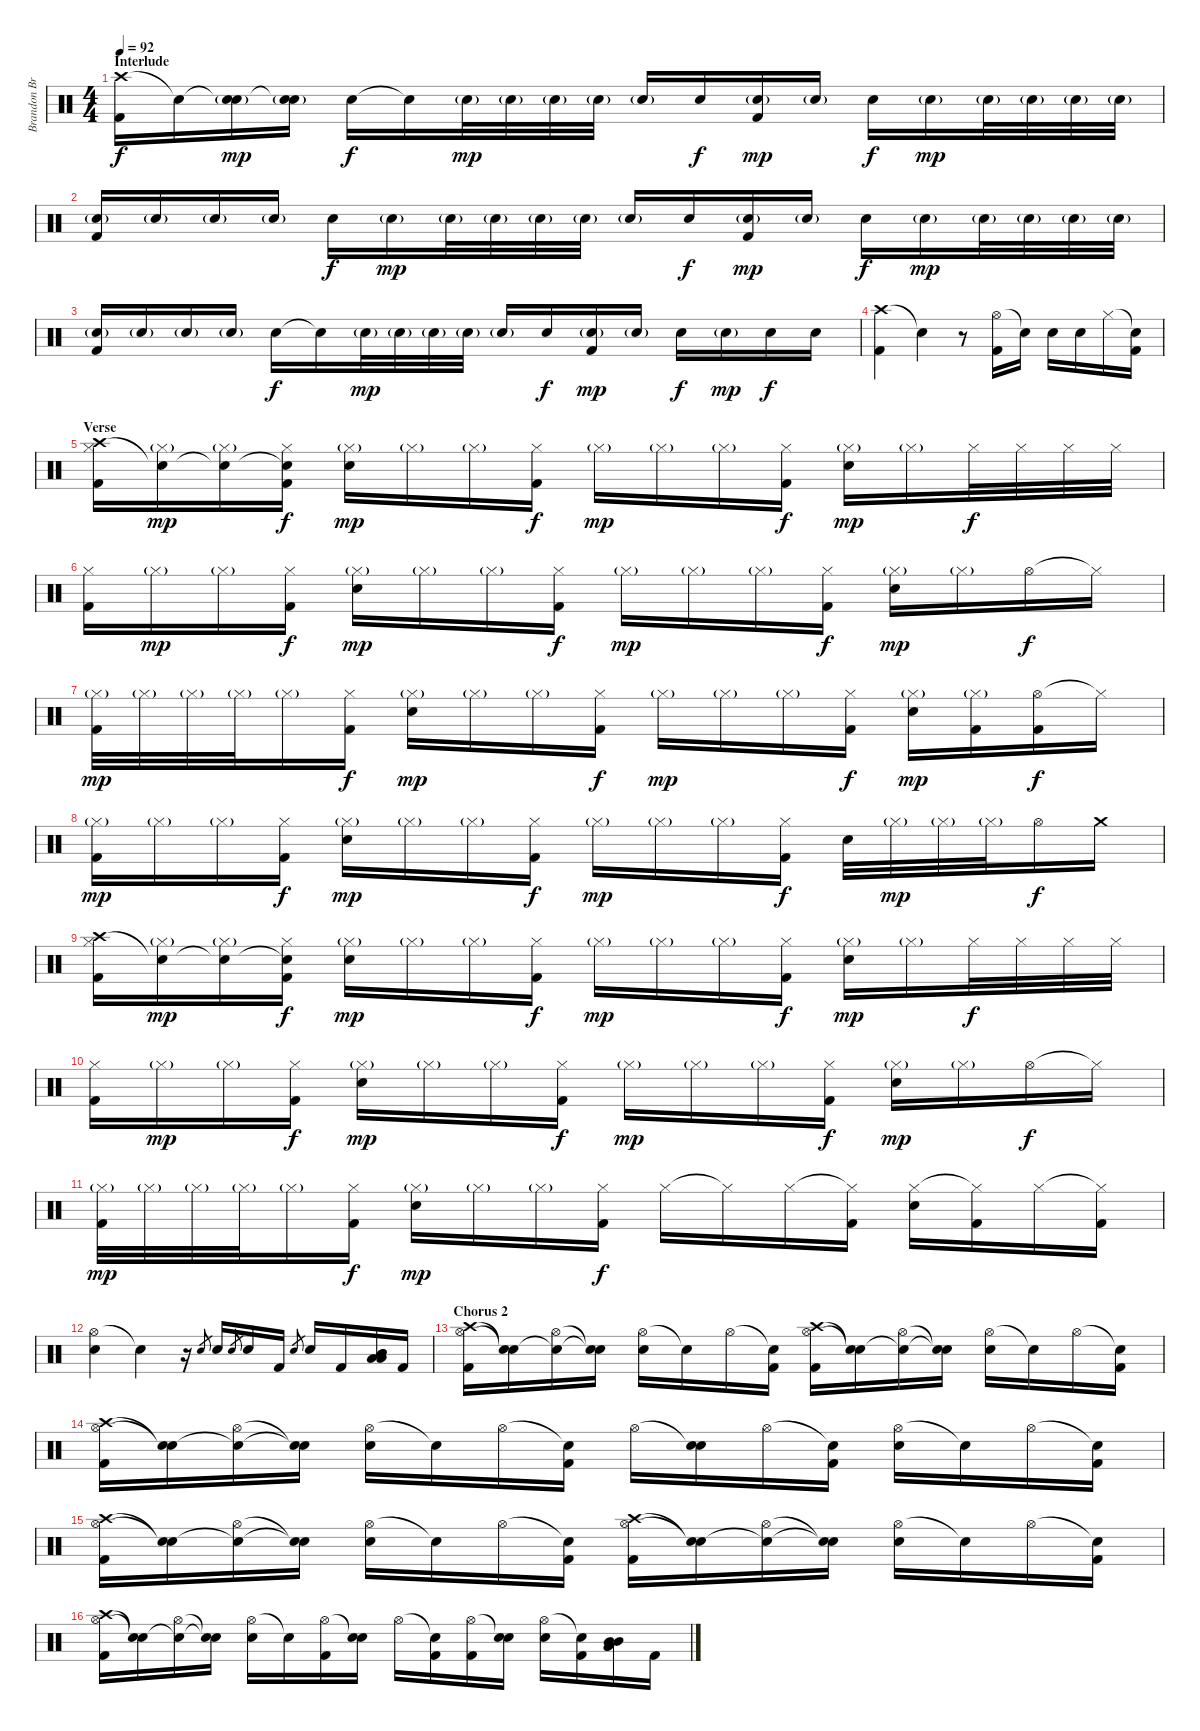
\track ("Brandon Brown (Drums)" "Brandon Br") {instrument percussion}
\staff {score}
\articulation defaults
\ts (4 4)
\section ("" "Interlude")
\tempo 92
\clef neutral
\ks c
("Crash high (hit)" "Kick (hit) 2").16{dy f} "Snare (hit)"{t}.16 ("Snare (hit)"{t} "Electric Snare (hit)"{g}).16{dy mp} ("Snare (hit)"{t} "Electric Snare (hit)"{g}).16 "Electric Snare (hit)".16{dy f} "Snare (hit)"{t}.16 "Electric Snare (hit)"{g}.32{dy mp} "Electric Snare (hit)"{g}.32 "Electric Snare (hit)"{g}.32 "Electric Snare (hit)"{g}.32 "Electric Snare (hit)"{g}.16 "Electric Snare (hit)".16{dy f} ("Electric Snare (hit)"{g} "Kick (hit) 2").16{dy mp} "Electric Snare (hit)"{g}.16 "Electric Snare (hit)".16{dy f} "Electric Snare (hit)"{g}.16{dy mp} "Electric Snare (hit)"{g}.32 "Electric Snare (hit)"{g}.32 "Electric Snare (hit)"{g}.32 "Electric Snare (hit)"{g}.32 |
("Electric Snare (hit)"{g} "Kick (hit) 2").16 "Electric Snare (hit)"{g}.16 "Electric Snare (hit)"{g}.16 "Electric Snare (hit)"{g}.16 "Electric Snare (hit)".16{dy f} "Electric Snare (hit)"{g}.16{dy mp} "Electric Snare (hit)"{g}.32 "Electric Snare (hit)"{g}.32 "Electric Snare (hit)"{g}.32 "Electric Snare (hit)"{g}.32 "Electric Snare (hit)"{g}.16 "Electric Snare (hit)".16{dy f} ("Electric Snare (hit)"{g} "Kick (hit) 2").16{dy mp} "Electric Snare (hit)"{g}.16 "Electric Snare (hit)".16{dy f} "Electric Snare (hit)"{g}.16{dy mp} "Electric Snare (hit)"{g}.32 "Electric Snare (hit)"{g}.32 "Electric Snare (hit)"{g}.32 "Electric Snare (hit)"{g}.32 |
("Electric Snare (hit)"{g} "Kick (hit) 2").16 "Electric Snare (hit)"{g}.16 "Electric Snare (hit)"{g}.16 "Electric Snare (hit)"{g}.16 "Electric Snare (hit)".16{dy f} "Snare (hit)"{t}.16 "Electric Snare (hit)"{g}.32{dy mp} "Electric Snare (hit)"{g}.32 "Electric Snare (hit)"{g}.32 "Electric Snare (hit)"{g}.32 "Electric Snare (hit)"{g}.16 "Electric Snare (hit)".16{dy f} ("Electric Snare (hit)"{g} "Kick (hit) 2").16{dy mp} "Electric Snare (hit)"{g}.16 "Electric Snare (hit)".16{dy f} "Electric Snare (hit)"{g}.16{dy mp} "Electric Snare (hit)".16{dy f} "Electric Snare (hit)".16 |
("Crash high (hit)" "Kick (hit) 2").4 "Snare (hit)"{t}.4 r.8 ("Hi-Hat (open)" "Kick (hit) 2").16 "Snare (hit)"{t}.16 "Electric Snare (hit)".16 "Electric Snare (hit)".16 "Hi-Hat (closed)".16 ("Snare (hit)"{t} "Kick (hit) 2").16 |
\section ("" "Verse")
("Hi-Hat (closed)" "Crash high (hit)" "Kick (hit) 2").16 ("Hi-Hat (closed)"{g} "Snare (hit)"{t}).16{dy mp} ("Hi-Hat (closed)"{g} "Snare (hit)"{t}).16 ("Hi-Hat (closed)" "Snare (hit)"{t} "Kick (hit) 2").16{dy f} ("Hi-Hat (closed)"{g} "Electric Snare (hit)").16{dy mp} "Hi-Hat (closed)"{g}.16 "Hi-Hat (closed)"{g}.16 ("Hi-Hat (closed)" "Kick (hit) 2").16{dy f} "Hi-Hat (closed)"{g}.16{dy mp} "Hi-Hat (closed)"{g}.16 "Hi-Hat (closed)"{g}.16 ("Hi-Hat (closed)" "Kick (hit) 2").16{dy f} ("Hi-Hat (closed)"{g} "Electric Snare (hit)").16{dy mp} "Hi-Hat (closed)"{g}.16 "Hi-Hat (closed)".32{dy f} "Hi-Hat (closed)".32 "Hi-Hat (closed)".32 "Hi-Hat (closed)".32 |
("Hi-Hat (closed)" "Kick (hit) 2").16 "Hi-Hat (closed)"{g}.16{dy mp} "Hi-Hat (closed)"{g}.16 ("Hi-Hat (closed)" "Kick (hit) 2").16{dy f} ("Hi-Hat (closed)"{g} "Electric Snare (hit)").16{dy mp} "Hi-Hat (closed)"{g}.16 "Hi-Hat (closed)"{g}.16 ("Hi-Hat (closed)" "Kick (hit) 2").16{dy f} "Hi-Hat (closed)"{g}.16{dy mp} "Hi-Hat (closed)"{g}.16 "Hi-Hat (closed)"{g}.16 ("Hi-Hat (closed)" "Kick (hit) 2").16{dy f} ("Hi-Hat (closed)"{g} "Electric Snare (hit)").16{dy mp} "Hi-Hat (closed)"{g}.16 "Hi-Hat (open)".16{dy f} "Hi-Hat (closed)"{t}.16 |
("Hi-Hat (closed)"{g} "Kick (hit) 2").32{dy mp} "Hi-Hat (closed)"{g}.32 "Hi-Hat (closed)"{g}.32 "Hi-Hat (closed)"{g}.32 "Hi-Hat (closed)"{g}.16 ("Hi-Hat (closed)" "Kick (hit) 2").16{dy f} ("Hi-Hat (closed)"{g} "Electric Snare (hit)").16{dy mp} "Hi-Hat (closed)"{g}.16 "Hi-Hat (closed)"{g}.16 ("Hi-Hat (closed)" "Kick (hit) 2").16{dy f} "Hi-Hat (closed)"{g}.16{dy mp} "Hi-Hat (closed)"{g}.16 "Hi-Hat (closed)"{g}.16 ("Hi-Hat (closed)" "Kick (hit) 2").16{dy f} ("Hi-Hat (closed)"{g} "Electric Snare (hit)").16{dy mp} ("Hi-Hat (closed)"{g} "Kick (hit) 2").16 ("Hi-Hat (open)" "Kick (hit) 2").16{dy f} "Hi-Hat (closed)"{t}.16 |
("Hi-Hat (closed)"{g} "Kick (hit) 2").16{dy mp} "Hi-Hat (closed)"{g}.16 "Hi-Hat (closed)"{g}.16 ("Hi-Hat (closed)" "Kick (hit) 2").16{dy f} ("Hi-Hat (closed)"{g} "Electric Snare (hit)").16{dy mp} "Hi-Hat (closed)"{g}.16 "Hi-Hat (closed)"{g}.16 ("Hi-Hat (closed)" "Kick (hit) 2").16{dy f} "Hi-Hat (closed)"{g}.16{dy mp} "Hi-Hat (closed)"{g}.16 "Hi-Hat (closed)"{g}.16 ("Hi-Hat (closed)" "Kick (hit) 2").16{dy f} "Electric Snare (hit)".32 "Hi-Hat (closed)"{g}.32{dy mp} "Hi-Hat (closed)"{g}.32 "Hi-Hat (closed)"{g}.32 "Hi-Hat (open)".16{dy f} "Crash medium (hit)".16 |
("Hi-Hat (closed)" "Crash high (hit)" "Kick (hit) 2").16 ("Hi-Hat (closed)"{g} "Snare (hit)"{t}).16{dy mp} ("Hi-Hat (closed)"{g} "Snare (hit)"{t}).16 ("Hi-Hat (closed)" "Snare (hit)"{t} "Kick (hit) 2").16{dy f} ("Hi-Hat (closed)"{g} "Electric Snare (hit)").16{dy mp} "Hi-Hat (closed)"{g}.16 "Hi-Hat (closed)"{g}.16 ("Hi-Hat (closed)" "Kick (hit) 2").16{dy f} "Hi-Hat (closed)"{g}.16{dy mp} "Hi-Hat (closed)"{g}.16 "Hi-Hat (closed)"{g}.16 ("Hi-Hat (closed)" "Kick (hit) 2").16{dy f} ("Hi-Hat (closed)"{g} "Electric Snare (hit)").16{dy mp} "Hi-Hat (closed)"{g}.16 "Hi-Hat (closed)".32{dy f} "Hi-Hat (closed)".32 "Hi-Hat (closed)".32 "Hi-Hat (closed)".32 |
("Hi-Hat (closed)" "Kick (hit) 2").16 "Hi-Hat (closed)"{g}.16{dy mp} "Hi-Hat (closed)"{g}.16 ("Hi-Hat (closed)" "Kick (hit) 2").16{dy f} ("Hi-Hat (closed)"{g} "Electric Snare (hit)").16{dy mp} "Hi-Hat (closed)"{g}.16 "Hi-Hat (closed)"{g}.16 ("Hi-Hat (closed)" "Kick (hit) 2").16{dy f} "Hi-Hat (closed)"{g}.16{dy mp} "Hi-Hat (closed)"{g}.16 "Hi-Hat (closed)"{g}.16 ("Hi-Hat (closed)" "Kick (hit) 2").16{dy f} ("Hi-Hat (closed)"{g} "Electric Snare (hit)").16{dy mp} "Hi-Hat (closed)"{g}.16 "Hi-Hat (open)".16{dy f} "Hi-Hat (closed)"{t}.16 |
("Hi-Hat (closed)"{g} "Kick (hit) 2").32{dy mp} "Hi-Hat (closed)"{g}.32 "Hi-Hat (closed)"{g}.32 "Hi-Hat (closed)"{g}.32 "Hi-Hat (closed)"{g}.16 ("Hi-Hat (closed)" "Kick (hit) 2").16{dy f} ("Hi-Hat (closed)"{g} "Electric Snare (hit)").16{dy mp} "Hi-Hat (closed)"{g}.16 "Hi-Hat (closed)"{g}.16 ("Hi-Hat (closed)" "Kick (hit) 2").16{dy f} "Hi-Hat (closed)".16 "Hi-Hat (closed)"{t}.16 "Hi-Hat (closed)".16 ("Hi-Hat (closed)"{t} "Kick (hit) 2").16 ("Hi-Hat (closed)" "Electric Snare (hit)").16 ("Hi-Hat (closed)"{t} "Kick (hit) 2").16 "Hi-Hat (closed)".16 ("Hi-Hat (closed)"{t} "Kick (hit) 2").16 |
("Hi-Hat (open)" "Electric Snare (hit)").4 "Snare (hit)"{t}.4 r.16 "Electric Snare (hit)".8{gr} "Electric Snare (hit)".16 "Electric Snare (hit)".8{gr} "Electric Snare (hit)".16 "Kick (hit) 2".16 "Electric Snare (hit)".8{gr} "Electric Snare (hit)".16 "Kick (hit) 2".16 ("Mid Tom (hit)" "Mid Tom (hit)" "Low Tom (hit)" "Low Tom (hit)").16 "Kick (hit) 2".16 |
\section ("" "Chorus 2")
("Hi-Hat (open)" "Crash high (hit)" "Kick (hit) 2").16 ("Snare (hit)"{t} "Snare (hit)"{t}).16 ("Hi-Hat (open)" "Snare (hit)"{t}).16 ("Snare (hit)"{t} "Snare (hit)"{t}).16 ("Hi-Hat (open)" "Electric Snare (hit)").16 "Snare (hit)"{t}.16 "Hi-Hat (open)".16 ("Snare (hit)"{t} "Kick (hit) 2").16 ("Hi-Hat (open)" "Crash high (hit)" "Kick (hit) 2").16 ("Snare (hit)"{t} "Snare (hit)"{t}).16 ("Hi-Hat (open)" "Snare (hit)"{t}).16 ("Snare (hit)"{t} "Snare (hit)"{t}).16 ("Hi-Hat (open)" "Electric Snare (hit)").16 "Snare (hit)"{t}.16 "Hi-Hat (open)".16 ("Snare (hit)"{t} "Kick (hit) 2").16 |
("Hi-Hat (open)" "Crash high (hit)" "Kick (hit) 2").16 ("Snare (hit)"{t} "Snare (hit)"{t}).16 ("Hi-Hat (open)" "Snare (hit)"{t}).16 ("Snare (hit)"{t} "Snare (hit)"{t}).16 ("Hi-Hat (open)" "Electric Snare (hit)").16 "Snare (hit)"{t}.16 "Hi-Hat (open)".16 ("Snare (hit)"{t} "Kick (hit) 2").16 "Hi-Hat (open)".16 ("Snare (hit)"{t} "Electric Snare (hit)").16 "Hi-Hat (open)".16 ("Snare (hit)"{t} "Kick (hit) 2").16 ("Hi-Hat (open)" "Electric Snare (hit)").16 "Snare (hit)"{t}.16 "Hi-Hat (open)".16 ("Snare (hit)"{t} "Kick (hit) 2").16 |
("Hi-Hat (open)" "Crash high (hit)" "Kick (hit) 2").16 ("Snare (hit)"{t} "Snare (hit)"{t}).16 ("Hi-Hat (open)" "Snare (hit)"{t}).16 ("Snare (hit)"{t} "Snare (hit)"{t}).16 ("Hi-Hat (open)" "Electric Snare (hit)").16 "Snare (hit)"{t}.16 "Hi-Hat (open)".16 ("Snare (hit)"{t} "Kick (hit) 2").16 ("Hi-Hat (open)" "Crash high (hit)" "Kick (hit) 2").16 ("Snare (hit)"{t} "Snare (hit)"{t}).16 ("Hi-Hat (open)" "Snare (hit)"{t}).16 ("Snare (hit)"{t} "Snare (hit)"{t}).16 ("Hi-Hat (open)" "Electric Snare (hit)").16 "Snare (hit)"{t}.16 "Hi-Hat (open)".16 ("Snare (hit)"{t} "Kick (hit) 2").16 |
("Hi-Hat (open)" "Crash high (hit)" "Kick (hit) 2").16 ("Snare (hit)"{t} "Snare (hit)"{t}).16 ("Hi-Hat (open)" "Snare (hit)"{t}).16 ("Snare (hit)"{t} "Snare (hit)"{t}).16 ("Hi-Hat (open)" "Electric Snare (hit)").16 "Snare (hit)"{t}.16 ("Hi-Hat (open)" "Kick (hit) 2").16 ("Snare (hit)"{t} "Electric Snare (hit)").16 "Hi-Hat (open)".16 ("Snare (hit)"{t} "Kick (hit) 2").16 ("Hi-Hat (open)" "Kick (hit) 2").16 ("Snare (hit)"{t} "Electric Snare (hit)").16 ("Hi-Hat (open)" "Electric Snare (hit)").16 ("Snare (hit)"{t} "Kick (hit) 2").16 ("Mid Tom (hit)" "Mid Tom (hit)" "Low Tom (hit)" "Low Tom (hit)").16 "Kick (hit) 2".16
